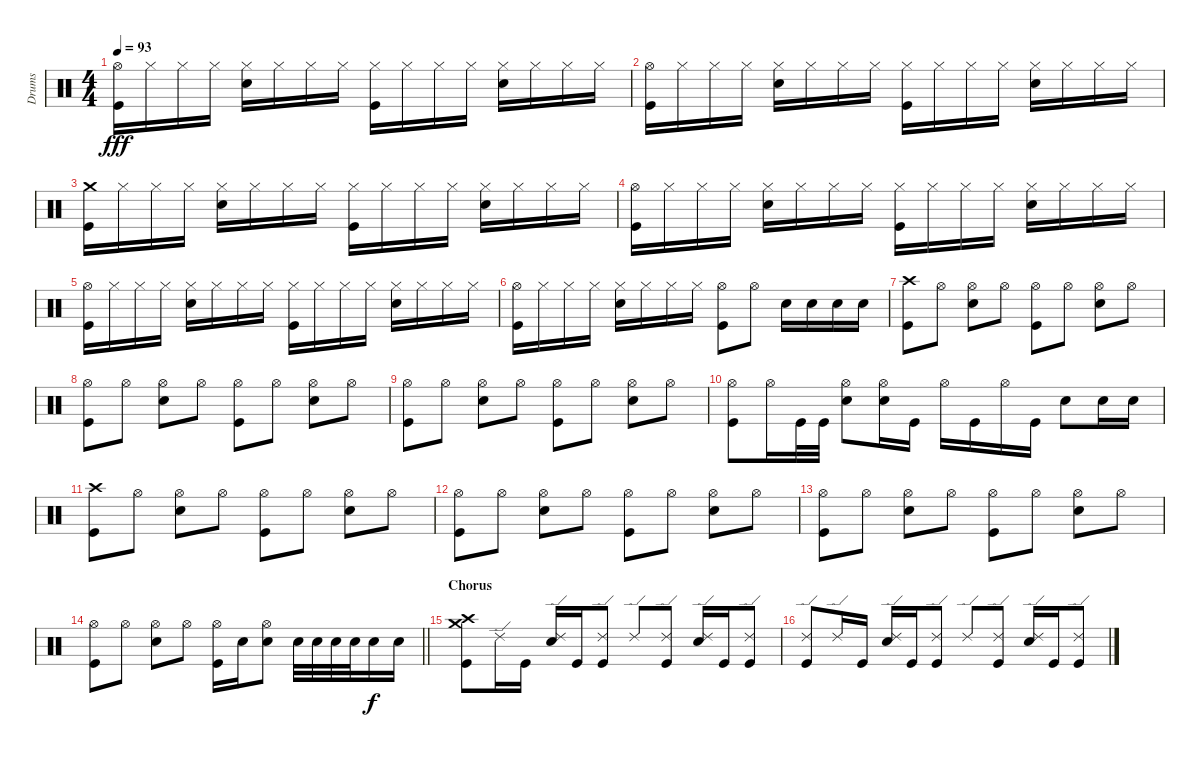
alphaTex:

\track ("Drums" "Drums") {instrument percussion}
\staff {score}
\articulation defaults
\ts (4 4)
\tempo 93
\clef neutral
\ks c
("Hi-Hat (open)" "Kick (hit)").16{dy fff} "Hi-Hat (closed)".16 "Hi-Hat (closed)".16 "Hi-Hat (closed)".16 ("Hi-Hat (closed)" "Snare (hit) 2").16 "Hi-Hat (closed)".16 "Hi-Hat (closed)".16 "Hi-Hat (closed)".16 ("Hi-Hat (closed)" "Kick (hit)").16 "Hi-Hat (closed)".16 "Hi-Hat (closed)".16 "Hi-Hat (closed)".16 ("Hi-Hat (closed)" "Snare (hit) 2").16 "Hi-Hat (closed)".16 "Hi-Hat (closed)".16 "Hi-Hat (closed)".16 |
("Hi-Hat (open)" "Kick (hit)").16 "Hi-Hat (closed)".16 "Hi-Hat (closed)".16 "Hi-Hat (closed)".16 ("Hi-Hat (closed)" "Snare (hit) 2").16 "Hi-Hat (closed)".16 "Hi-Hat (closed)".16 "Hi-Hat (closed)".16 ("Hi-Hat (closed)" "Kick (hit)").16 "Hi-Hat (closed)".16 "Hi-Hat (closed)".16 "Hi-Hat (closed)".16 ("Hi-Hat (closed)" "Snare (hit) 2").16 "Hi-Hat (closed)".16 "Hi-Hat (closed)".16 "Hi-Hat (closed)".16 |
("Crash medium (hit)" "Kick (hit)").16 "Hi-Hat (closed)".16 "Hi-Hat (closed)".16 "Hi-Hat (closed)".16 ("Hi-Hat (closed)" "Snare (hit) 2").16 "Hi-Hat (closed)".16 "Hi-Hat (closed)".16 "Hi-Hat (closed)".16 ("Hi-Hat (closed)" "Kick (hit)").16 "Hi-Hat (closed)".16 "Hi-Hat (closed)".16 "Hi-Hat (closed)".16 ("Hi-Hat (closed)" "Snare (hit) 2").16 "Hi-Hat (closed)".16 "Hi-Hat (closed)".16 "Hi-Hat (closed)".16 |
("Hi-Hat (open)" "Kick (hit)").16 "Hi-Hat (closed)".16 "Hi-Hat (closed)".16 "Hi-Hat (closed)".16 ("Hi-Hat (closed)" "Snare (hit) 2").16 "Hi-Hat (closed)".16 "Hi-Hat (closed)".16 "Hi-Hat (closed)".16 ("Hi-Hat (closed)" "Kick (hit)").16 "Hi-Hat (closed)".16 "Hi-Hat (closed)".16 "Hi-Hat (closed)".16 ("Hi-Hat (closed)" "Snare (hit) 2").16 "Hi-Hat (closed)".16 "Hi-Hat (closed)".16 "Hi-Hat (closed)".16 |
("Hi-Hat (open)" "Kick (hit)").16 "Hi-Hat (closed)".16 "Hi-Hat (closed)".16 "Hi-Hat (closed)".16 ("Hi-Hat (closed)" "Snare (hit) 2").16 "Hi-Hat (closed)".16 "Hi-Hat (closed)".16 "Hi-Hat (closed)".16 ("Hi-Hat (closed)" "Kick (hit)").16 "Hi-Hat (closed)".16 "Hi-Hat (closed)".16 "Hi-Hat (closed)".16 ("Hi-Hat (closed)" "Snare (hit) 2").16 "Hi-Hat (closed)".16 "Hi-Hat (closed)".16 "Hi-Hat (closed)".16 |
("Hi-Hat (open)" "Kick (hit)").16 "Hi-Hat (closed)".16 "Hi-Hat (closed)".16 "Hi-Hat (closed)".16 ("Hi-Hat (closed)" "Snare (hit) 2").16 "Hi-Hat (closed)".16 "Hi-Hat (closed)".16 "Hi-Hat (closed)".16 ("Hi-Hat (open)" "Kick (hit)").8 "Hi-Hat (open)".8 "Snare (hit) 2".16 "Snare (hit) 2".16 "Snare (hit) 2".16 "Snare (hit) 2".16 |
("Crash high (hit)" "Kick (hit)").8 "Hi-Hat (open)".8 ("Hi-Hat (open)" "Snare (hit) 2").8 "Hi-Hat (open)".8 ("Hi-Hat (open)" "Kick (hit)").8 "Hi-Hat (open)".8 ("Hi-Hat (open)" "Snare (hit) 2").8 "Hi-Hat (open)".8 |
("Hi-Hat (open)" "Kick (hit)").8 "Hi-Hat (open)".8 ("Hi-Hat (open)" "Snare (hit) 2").8 "Hi-Hat (open)".8 ("Hi-Hat (open)" "Kick (hit)").8 "Hi-Hat (open)".8 ("Hi-Hat (open)" "Snare (hit) 2").8 "Hi-Hat (open)".8 |
("Hi-Hat (open)" "Kick (hit)").8 "Hi-Hat (open)".8 ("Hi-Hat (open)" "Snare (hit) 2").8 "Hi-Hat (open)".8 ("Hi-Hat (open)" "Kick (hit)").8 "Hi-Hat (open)".8 ("Hi-Hat (open)" "Snare (hit) 2").8 "Hi-Hat (open)".8 |
("Hi-Hat (open)" "Kick (hit)").8 "Hi-Hat (open)".16 "Kick (hit)".32 "Kick (hit)".32 ("Hi-Hat (open)" "Snare (hit) 2").8 ("Hi-Hat (open)" "Snare (hit) 2").16 "Kick (hit)".16 "Hi-Hat (open)".16 "Kick (hit)".16 "Hi-Hat (open)".16 "Kick (hit)".16 "Snare (hit) 2".8 "Snare (hit) 2".16 "Snare (hit) 2".16 |
("Crash high (hit)" "Kick (hit)").8 "Hi-Hat (open)".8 ("Hi-Hat (open)" "Snare (hit) 2").8 "Hi-Hat (open)".8 ("Hi-Hat (open)" "Kick (hit)").8 "Hi-Hat (open)".8 ("Hi-Hat (open)" "Snare (hit) 2").8 "Hi-Hat (open)".8 |
("Hi-Hat (open)" "Kick (hit)").8 "Hi-Hat (open)".8 ("Hi-Hat (open)" "Snare (hit) 2").8 "Hi-Hat (open)".8 ("Hi-Hat (open)" "Kick (hit)").8 "Hi-Hat (open)".8 ("Hi-Hat (open)" "Snare (hit) 2").8 "Hi-Hat (open)".8 |
("Hi-Hat (open)" "Kick (hit)").8 "Hi-Hat (open)".8 ("Hi-Hat (open)" "Snare (hit) 2").8 "Hi-Hat (open)".8 ("Hi-Hat (open)" "Kick (hit)").8 "Hi-Hat (open)".8 ("Hi-Hat (open)" "Snare (hit) 2").8 "Hi-Hat (open)".8 |
\barLineRight lightlight
("Hi-Hat (open)" "Kick (hit)").8 "Hi-Hat (open)".8 ("Hi-Hat (open)" "Snare (hit) 2").8 "Hi-Hat (open)".8 ("Hi-Hat (open)" "Kick (hit)").16 "Snare (hit) 2".16 ("Hi-Hat (open)" "Snare (hit) 2").8 "Snare (hit) 2".32 "Snare (hit) 2".32 "Snare (hit) 2".32 "Snare (hit) 2".32 "Snare (hit) 2".16{dy f} "Snare (hit) 2".16 |
\section ("" "Chorus")
("Crash high (hit)" "Crash medium (hit)" "Kick (hit)").8 "Ride (edge) 2".16 "Kick (hit)".16 ("Ride (edge) 2" "Snare (hit) 2").16 "Kick (hit)".16 ("Ride (edge) 2" "Kick (hit)").8 "Ride (edge) 2".8 ("Ride (edge) 2" "Kick (hit)").8 ("Ride (edge) 2" "Snare (hit) 2").16 "Kick (hit)".16 ("Ride (edge) 2" "Kick (hit)").8 |
("Ride (edge) 2" "Kick (hit)").8 "Ride (edge) 2".16 "Kick (hit)".16 ("Ride (edge) 2" "Snare (hit) 2").16 "Kick (hit)".16 ("Ride (edge) 2" "Kick (hit)").8 "Ride (edge) 2".8 ("Ride (edge) 2" "Kick (hit)").8 ("Ride (edge) 2" "Snare (hit) 2").16 "Kick (hit)".16 ("Ride (edge) 2" "Kick (hit)").8
